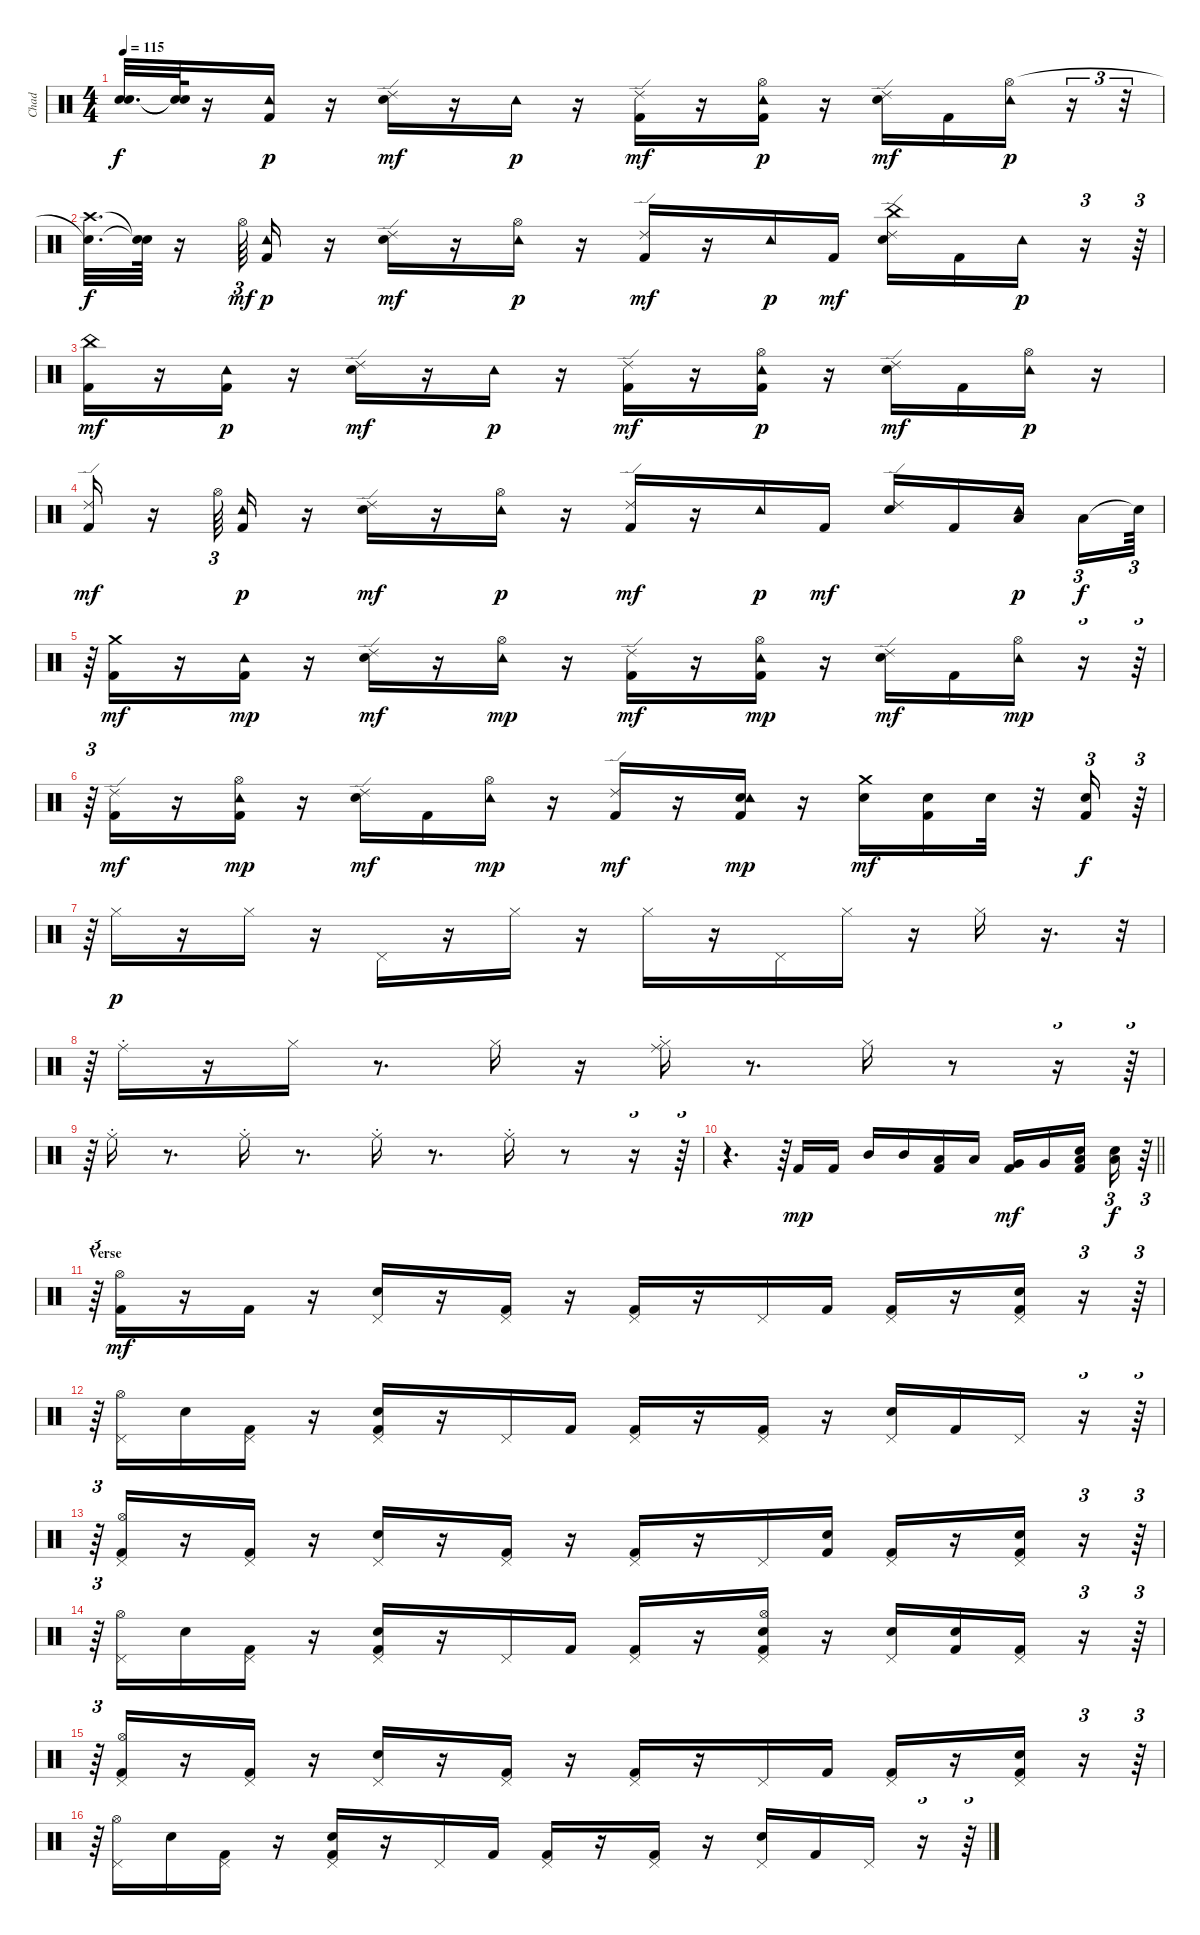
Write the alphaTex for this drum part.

\track ("Chad" "Chad") {instrument percussion}
\staff {score}
\articulation defaults
\ts (4 4)
\tempo 115
\clef neutral
\ks c
("Snare (hit)"{t} "Snare (hit)"{t}).32{d dy f} ("Snare (hit)"{t} "Snare (hit)"{t}).64 r.16 ("Kick (hit) 2" "Tambourine (hit)").16{dy p} r.16 ("Snare (hit) 2" "Ride (edge) 2").16{dy mf} r.16 "Tambourine (hit)".16{dy p} r.16 ("Kick (hit) 2" "Ride (edge) 2").16{dy mf} r.16 ("Kick (hit) 2" "Hi-Hat (open)" "Tambourine (hit)").16{dy p} r.16 ("Snare (hit) 2" "Ride (edge) 2").16{dy mf} "Kick (hit) 2".16 ("Hi-Hat (open)" "Tambourine (hit)").16{dy p} r.16{tu (3 2)} r.32{tu (3 2)} |
("Snare (hit)"{t} "Crash high (hit)").32{d dy f} ("Snare (hit)"{t} "Snare (hit)"{t}).64 r.16 "Hi-Hat (open)".64{tu (3 2) dy mf} ("Kick (hit) 2" "Tambourine (hit)").16{dy p} r.16 ("Snare (hit) 2" "Ride (edge) 2").16{dy mf} r.16 ("Hi-Hat (open)" "Tambourine (hit)").16{dy p} r.16 ("Kick (hit) 2" "Ride (edge) 2").16{dy mf} r.16 "Tambourine (hit)".16{dy p} "Kick (hit) 2".16{dy mf} ("Snare (hit) 2" "China (hit)" "Ride (edge) 2").16 "Kick (hit) 2".16 "Tambourine (hit)".16{dy p} r.16{tu (3 2)} r.64{tu (3 2)} |
("Kick (hit) 2" "China (hit)").16{dy mf} r.16 ("Kick (hit) 2" "Tambourine (hit)").16{dy p} r.16 ("Snare (hit) 2" "Ride (edge) 2").16{dy mf} r.16 "Tambourine (hit)".16{dy p} r.16 ("Kick (hit) 2" "Ride (edge) 2").16{dy mf} r.16 ("Kick (hit) 2" "Hi-Hat (open)" "Tambourine (hit)").16{dy p} r.16 ("Snare (hit) 2" "Ride (edge) 2").16{dy mf} "Kick (hit) 2".16 ("Hi-Hat (open)" "Tambourine (hit)").16{dy p} r.16 |
("Kick (hit) 2" "Ride (edge) 2").16{dy mf} r.16 "Hi-Hat (open)".64{tu (3 2)} ("Kick (hit) 2" "Tambourine (hit)").16{dy p} r.16 ("Snare (hit) 2" "Ride (edge) 2").16{dy mf} r.16 ("Hi-Hat (open)" "Tambourine (hit)").16{dy p} r.16 ("Kick (hit) 2" "Ride (edge) 2").16{dy mf} r.16 "Tambourine (hit)".16{dy p} "Kick (hit) 2".16{dy mf} ("Snare (hit) 2" "Ride (edge) 2").16 "Kick (hit) 2".16 ("Low Floor Tom (hit)" "Tambourine (hit)").16{dy p beam splitsecondary} "Low Floor Tom (hit)".16{tu (3 2) dy f} "Snare (hit)"{t}.64{tu (3 2)} |
r.64{tu (3 2)} ("Kick (hit) 2" "Crash medium (hit)").16{dy mf} r.16 ("Kick (hit) 2" "Tambourine (hit)").16{dy mp} r.16 ("Snare (hit) 2" "Ride (edge) 2").16{dy mf} r.16 ("Hi-Hat (open)" "Tambourine (hit)").16{dy mp} r.16 ("Kick (hit) 2" "Ride (edge) 2").16{dy mf} r.16 ("Kick (hit) 2" "Hi-Hat (open)" "Tambourine (hit)").16{dy mp} r.16 ("Snare (hit) 2" "Ride (edge) 2").16{dy mf} "Kick (hit) 2".16 ("Hi-Hat (open)" "Tambourine (hit)").16{dy mp} r.16{tu (3 2)} r.64{tu (3 2)} |
r.64{tu (3 2)} ("Kick (hit) 2" "Ride (edge) 2").16{dy mf} r.16 ("Kick (hit) 2" "Hi-Hat (open)" "Tambourine (hit)").16{dy mp} r.16 ("Snare (hit) 2" "Ride (edge) 2").16{dy mf} "Kick (hit) 2".16 ("Hi-Hat (open)" "Tambourine (hit)").16{dy mp} r.16 ("Kick (hit) 2" "Ride (edge) 2").16{dy mf} r.16 ("Kick (hit) 2" "Snare (hit) 2" "Tambourine (hit)").16{dy mp} r.16 ("Snare (hit) 2" "Crash medium (hit)").16{dy mf} ("Kick (hit) 2" "Snare (hit) 2").16 "Snare (hit) 2".32 r.32 ("Kick (hit) 2" "Snare (hit) 2").16{tu (3 2) dy f} r.64{tu (3 2)} |
r.64{tu (3 2)} "Hi-Hat (closed)".16{dy p} r.16 "Hi-Hat (closed)".16 r.16 "Pedal Hi-Hat (hit)".16 r.16 "Hi-Hat (closed)".16 r.16 "Hi-Hat (closed)".16 r.16 "Pedal Hi-Hat (hit)".16 "Hi-Hat (closed)".16 r.16 "Hi-Hat (closed)".16 r.16{d} r.32{tu (3 2)} |
r.64{tu (3 2)} "Ride (choke)".16 r.16 "Hi-Hat (closed)".16 r.8{d} "Hi-Hat (closed)".16 r.16 ("Hi-Hat (closed)" "Ride (choke)").16 r.8{d} "Hi-Hat (closed)".16 r.8 r.16{tu (3 2)} r.64{tu (3 2)} |
r.64{tu (3 2)} "Ride (choke)".16 r.8{d} "Ride (choke)".16 r.8{d} "Ride (choke)".16 r.8{d} "Ride (choke)".16 r.8 r.16{tu (3 2)} r.64{tu (3 2)} |
\barLineRight lightlight
r.4{d} r.64{tu (3 2)} "Kick (hit) 2".16{dy mp} "Kick (hit) 2".16 "Mid Tom (hit)".16 "Mid Tom (hit)".16 ("Kick (hit) 2" "Low Tom (hit)").16 "Low Tom (hit)".16 ("Kick (hit) 2" "Very Low Tom (hit)").16{dy mf} "Very Low Tom (hit)".16 ("Kick (hit) 2" "Snare (hit) 2" "Low Floor Tom (hit)").16{beam splitsecondary} ("Snare (hit) 2" "Low Floor Tom (hit)").16{tu (3 2) dy f} r.64{tu (3 2)} |
\section ("" "Verse")
r.64{tu (3 2)} ("Kick (hit) 2" "Hi-Hat (open)").16{dy mf} r.16 "Kick (hit) 2".16 r.16 ("Snare (hit) 2" "Pedal Hi-Hat (hit)").16 r.16 ("Kick (hit) 2" "Pedal Hi-Hat (hit)").16 r.16 ("Kick (hit) 2" "Pedal Hi-Hat (hit)").16 r.16 "Pedal Hi-Hat (hit)".16 "Kick (hit) 2".16 ("Kick (hit) 2" "Pedal Hi-Hat (hit)").16 r.16 ("Kick (hit) 2" "Snare (hit) 2" "Pedal Hi-Hat (hit)").16 r.16{tu (3 2)} r.64{tu (3 2)} |
r.64{tu (3 2)} ("Pedal Hi-Hat (hit)" "Hi-Hat (open)").16 "Snare (hit) 2".16 ("Kick (hit) 2" "Pedal Hi-Hat (hit)").16 r.16 ("Kick (hit) 2" "Snare (hit) 2" "Pedal Hi-Hat (hit)").16 r.16 "Pedal Hi-Hat (hit)".16 "Kick (hit) 2".16 ("Kick (hit) 2" "Pedal Hi-Hat (hit)").16 r.16 ("Kick (hit) 2" "Pedal Hi-Hat (hit)").16 r.16 ("Snare (hit) 2" "Pedal Hi-Hat (hit)").16 "Kick (hit) 2".16 "Pedal Hi-Hat (hit)".16 r.16{tu (3 2)} r.64{tu (3 2)} |
r.64{tu (3 2)} ("Kick (hit) 2" "Pedal Hi-Hat (hit)" "Hi-Hat (open)").16 r.16 ("Kick (hit) 2" "Pedal Hi-Hat (hit)").16 r.16 ("Snare (hit) 2" "Pedal Hi-Hat (hit)").16 r.16 ("Kick (hit) 2" "Pedal Hi-Hat (hit)").16 r.16 ("Kick (hit) 2" "Pedal Hi-Hat (hit)").16 r.16 "Pedal Hi-Hat (hit)".16 ("Kick (hit) 2" "Snare (hit) 2").16 ("Kick (hit) 2" "Pedal Hi-Hat (hit)").16 r.16 ("Kick (hit) 2" "Snare (hit) 2" "Pedal Hi-Hat (hit)").16 r.16{tu (3 2)} r.64{tu (3 2)} |
r.64{tu (3 2)} ("Pedal Hi-Hat (hit)" "Hi-Hat (open)").16 "Snare (hit) 2".16 ("Kick (hit) 2" "Pedal Hi-Hat (hit)").16 r.16 ("Kick (hit) 2" "Snare (hit) 2" "Pedal Hi-Hat (hit)").16 r.16 "Pedal Hi-Hat (hit)".16 "Kick (hit) 2".16 ("Kick (hit) 2" "Pedal Hi-Hat (hit)").16 r.16 ("Kick (hit) 2" "Snare (hit) 2" "Pedal Hi-Hat (hit)" "Hi-Hat (open)").16 r.16 ("Snare (hit) 2" "Pedal Hi-Hat (hit)").16 ("Kick (hit) 2" "Snare (hit) 2").16 ("Kick (hit) 2" "Pedal Hi-Hat (hit)").16 r.16{tu (3 2)} r.64{tu (3 2)} |
r.64{tu (3 2)} ("Kick (hit) 2" "Pedal Hi-Hat (hit)" "Hi-Hat (open)").16 r.16 ("Kick (hit) 2" "Pedal Hi-Hat (hit)").16 r.16 ("Snare (hit) 2" "Pedal Hi-Hat (hit)").16 r.16 ("Kick (hit) 2" "Pedal Hi-Hat (hit)").16 r.16 ("Kick (hit) 2" "Pedal Hi-Hat (hit)").16 r.16 "Pedal Hi-Hat (hit)".16 "Kick (hit) 2".16 ("Kick (hit) 2" "Pedal Hi-Hat (hit)").16 r.16 ("Kick (hit) 2" "Snare (hit) 2" "Pedal Hi-Hat (hit)").16 r.16{tu (3 2)} r.64{tu (3 2)} |
r.64{tu (3 2)} ("Pedal Hi-Hat (hit)" "Hi-Hat (open)").16 "Snare (hit) 2".16 ("Kick (hit) 2" "Pedal Hi-Hat (hit)").16 r.16 ("Kick (hit) 2" "Snare (hit) 2" "Pedal Hi-Hat (hit)").16 r.16 "Pedal Hi-Hat (hit)".16 "Kick (hit) 2".16 ("Kick (hit) 2" "Pedal Hi-Hat (hit)").16 r.16 ("Kick (hit) 2" "Pedal Hi-Hat (hit)").16 r.16 ("Snare (hit) 2" "Pedal Hi-Hat (hit)").16 "Kick (hit) 2".16 "Pedal Hi-Hat (hit)".16 r.16{tu (3 2)} r.64{tu (3 2)}
